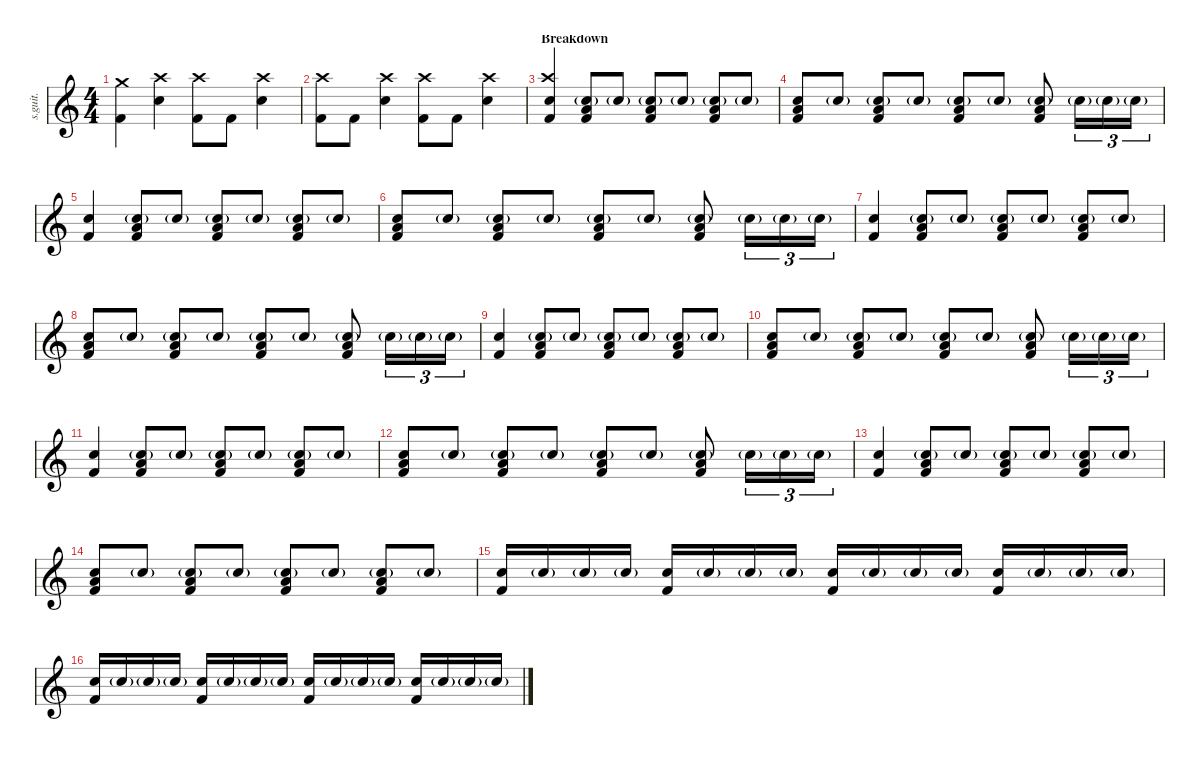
\defaultSystemsLayout 4
\hideDynamics
\bracketExtendMode nobrackets
\track ("Travis" "s.guit.") {instrument percussion}
\staff {score}
\articulation defaults
\ts (4 4)
\tempo (149 hide)
\clef g2
\ks c
("Crash medium (hit)" "Kick (hit) 2").4{lyrics (0 "") lyrics (1 "") lyrics (2 "") lyrics (3 "") lyrics (4 "") dy f} ("Crash high (hit)" "Snare (hit) 2").4{lyrics (0 "") lyrics (1 "") lyrics (2 "") lyrics (3 "") lyrics (4 "")} ("Crash high (hit)" "Kick (hit) 2").8{lyrics (0 "") lyrics (1 "") lyrics (2 "") lyrics (3 "") lyrics (4 "")} "Kick (hit) 2".8{lyrics (0 "") lyrics (1 "") lyrics (2 "") lyrics (3 "") lyrics (4 "")} ("Crash high (hit)" "Snare (hit) 2").4{lyrics (0 "") lyrics (1 "") lyrics (2 "") lyrics (3 "") lyrics (4 "")} |
("Crash high (hit)" "Kick (hit) 2").8{lyrics (0 "") lyrics (1 "") lyrics (2 "") lyrics (3 "") lyrics (4 "")} "Kick (hit) 2".8{lyrics (0 "") lyrics (1 "") lyrics (2 "") lyrics (3 "") lyrics (4 "")} ("Crash high (hit)" "Snare (hit) 2").4{lyrics (0 "") lyrics (1 "") lyrics (2 "") lyrics (3 "") lyrics (4 "")} ("Crash high (hit)" "Kick (hit) 2").8{lyrics (0 "") lyrics (1 "") lyrics (2 "") lyrics (3 "") lyrics (4 "")} "Kick (hit) 2".8{lyrics (0 "") lyrics (1 "") lyrics (2 "") lyrics (3 "") lyrics (4 "")} ("Crash high (hit)" "Snare (hit) 2").4{lyrics (0 "") lyrics (1 "") lyrics (2 "") lyrics (3 "") lyrics (4 "")} |
\section ("" "Breakdown")
("Crash high (hit)" "Snare (hit) 2" "Kick (hit) 2").4{lyrics (0 "") lyrics (1 "") lyrics (2 "") lyrics (3 "") lyrics (4 "")} ("Snare (hit) 2"{g} "Low Tom (hit)" "Kick (hit) 2").8{lyrics (0 "") lyrics (1 "") lyrics (2 "") lyrics (3 "") lyrics (4 "")} "Snare (hit) 2"{g}.8{lyrics (0 "") lyrics (1 "") lyrics (2 "") lyrics (3 "") lyrics (4 "") dy ppp} ("Snare (hit) 2"{g} "Low Tom (hit)" "Kick (hit) 2").8{lyrics (0 "") lyrics (1 "") lyrics (2 "") lyrics (3 "") lyrics (4 "") dy f} "Snare (hit) 2"{g}.8{lyrics (0 "") lyrics (1 "") lyrics (2 "") lyrics (3 "") lyrics (4 "") dy ppp} ("Snare (hit) 2"{g} "Low Tom (hit)" "Kick (hit) 2").8{lyrics (0 "") lyrics (1 "") lyrics (2 "") lyrics (3 "") lyrics (4 "") dy f} "Snare (hit) 2"{g}.8{lyrics (0 "") lyrics (1 "") lyrics (2 "") lyrics (3 "") lyrics (4 "") dy ppp} |
("Snare (hit) 2" "Low Tom (hit)" "Kick (hit) 2").8{lyrics (0 "") lyrics (1 "") lyrics (2 "") lyrics (3 "") lyrics (4 "") dy f} "Snare (hit) 2"{g}.8{lyrics (0 "") lyrics (1 "") lyrics (2 "") lyrics (3 "") lyrics (4 "") dy ppp} ("Snare (hit) 2"{g} "Low Tom (hit)" "Kick (hit) 2").8{lyrics (0 "") lyrics (1 "") lyrics (2 "") lyrics (3 "") lyrics (4 "") dy f} "Snare (hit) 2"{g}.8{lyrics (0 "") lyrics (1 "") lyrics (2 "") lyrics (3 "") lyrics (4 "") dy ppp} ("Snare (hit) 2"{g} "Low Tom (hit)" "Kick (hit) 2").8{lyrics (0 "") lyrics (1 "") lyrics (2 "") lyrics (3 "") lyrics (4 "") dy f} "Snare (hit) 2"{g}.8{lyrics (0 "") lyrics (1 "") lyrics (2 "") lyrics (3 "") lyrics (4 "") dy ppp} ("Snare (hit) 2"{g} "Low Tom (hit)" "Kick (hit) 2").8{lyrics (0 "") lyrics (1 "") lyrics (2 "") lyrics (3 "") lyrics (4 "") dy f} "Snare (hit) 2"{g}.16{tu (3 2) lyrics (0 "") lyrics (1 "") lyrics (2 "") lyrics (3 "") lyrics (4 "") dy ppp} "Snare (hit) 2"{g}.16{tu (3 2) lyrics (0 "") lyrics (1 "") lyrics (2 "") lyrics (3 "") lyrics (4 "")} "Snare (hit) 2"{g}.16{tu (3 2) lyrics (0 "") lyrics (1 "") lyrics (2 "") lyrics (3 "") lyrics (4 "")} |
("Snare (hit) 2" "Kick (hit) 2").4{lyrics (0 "") lyrics (1 "") lyrics (2 "") lyrics (3 "") lyrics (4 "") dy f} ("Snare (hit) 2"{g} "Low Tom (hit)" "Kick (hit) 2").8{lyrics (0 "") lyrics (1 "") lyrics (2 "") lyrics (3 "") lyrics (4 "")} "Snare (hit) 2"{g}.8{lyrics (0 "") lyrics (1 "") lyrics (2 "") lyrics (3 "") lyrics (4 "") dy ppp} ("Snare (hit) 2"{g} "Low Tom (hit)" "Kick (hit) 2").8{lyrics (0 "") lyrics (1 "") lyrics (2 "") lyrics (3 "") lyrics (4 "") dy f} "Snare (hit) 2"{g}.8{lyrics (0 "") lyrics (1 "") lyrics (2 "") lyrics (3 "") lyrics (4 "") dy ppp} ("Snare (hit) 2"{g} "Low Tom (hit)" "Kick (hit) 2").8{lyrics (0 "") lyrics (1 "") lyrics (2 "") lyrics (3 "") lyrics (4 "") dy f} "Snare (hit) 2"{g}.8{lyrics (0 "") lyrics (1 "") lyrics (2 "") lyrics (3 "") lyrics (4 "") dy ppp} |
("Snare (hit) 2" "Low Tom (hit)" "Kick (hit) 2").8{lyrics (0 "") lyrics (1 "") lyrics (2 "") lyrics (3 "") lyrics (4 "") dy f} "Snare (hit) 2"{g}.8{lyrics (0 "") lyrics (1 "") lyrics (2 "") lyrics (3 "") lyrics (4 "") dy ppp} ("Snare (hit) 2"{g} "Low Tom (hit)" "Kick (hit) 2").8{lyrics (0 "") lyrics (1 "") lyrics (2 "") lyrics (3 "") lyrics (4 "") dy f} "Snare (hit) 2"{g}.8{lyrics (0 "") lyrics (1 "") lyrics (2 "") lyrics (3 "") lyrics (4 "") dy ppp} ("Snare (hit) 2"{g} "Low Tom (hit)" "Kick (hit) 2").8{lyrics (0 "") lyrics (1 "") lyrics (2 "") lyrics (3 "") lyrics (4 "") dy f} "Snare (hit) 2"{g}.8{lyrics (0 "") lyrics (1 "") lyrics (2 "") lyrics (3 "") lyrics (4 "") dy ppp} ("Snare (hit) 2"{g} "Low Tom (hit)" "Kick (hit) 2").8{lyrics (0 "") lyrics (1 "") lyrics (2 "") lyrics (3 "") lyrics (4 "") dy f} "Snare (hit) 2"{g}.16{tu (3 2) lyrics (0 "") lyrics (1 "") lyrics (2 "") lyrics (3 "") lyrics (4 "") dy ppp} "Snare (hit) 2"{g}.16{tu (3 2) lyrics (0 "") lyrics (1 "") lyrics (2 "") lyrics (3 "") lyrics (4 "")} "Snare (hit) 2"{g}.16{tu (3 2) lyrics (0 "") lyrics (1 "") lyrics (2 "") lyrics (3 "") lyrics (4 "")} |
("Snare (hit) 2" "Kick (hit) 2").4{lyrics (0 "") lyrics (1 "") lyrics (2 "") lyrics (3 "") lyrics (4 "") dy f} ("Snare (hit) 2"{g} "Low Tom (hit)" "Kick (hit) 2").8{lyrics (0 "") lyrics (1 "") lyrics (2 "") lyrics (3 "") lyrics (4 "")} "Snare (hit) 2"{g}.8{lyrics (0 "") lyrics (1 "") lyrics (2 "") lyrics (3 "") lyrics (4 "") dy ppp} ("Snare (hit) 2"{g} "Low Tom (hit)" "Kick (hit) 2").8{lyrics (0 "") lyrics (1 "") lyrics (2 "") lyrics (3 "") lyrics (4 "") dy f} "Snare (hit) 2"{g}.8{lyrics (0 "") lyrics (1 "") lyrics (2 "") lyrics (3 "") lyrics (4 "") dy ppp} ("Snare (hit) 2"{g} "Low Tom (hit)" "Kick (hit) 2").8{lyrics (0 "") lyrics (1 "") lyrics (2 "") lyrics (3 "") lyrics (4 "") dy f} "Snare (hit) 2"{g}.8{lyrics (0 "") lyrics (1 "") lyrics (2 "") lyrics (3 "") lyrics (4 "") dy ppp} |
("Snare (hit) 2" "Low Tom (hit)" "Kick (hit) 2").8{lyrics (0 "") lyrics (1 "") lyrics (2 "") lyrics (3 "") lyrics (4 "") dy f} "Snare (hit) 2"{g}.8{lyrics (0 "") lyrics (1 "") lyrics (2 "") lyrics (3 "") lyrics (4 "") dy ppp} ("Snare (hit) 2"{g} "Low Tom (hit)" "Kick (hit) 2").8{lyrics (0 "") lyrics (1 "") lyrics (2 "") lyrics (3 "") lyrics (4 "") dy f} "Snare (hit) 2"{g}.8{lyrics (0 "") lyrics (1 "") lyrics (2 "") lyrics (3 "") lyrics (4 "") dy ppp} ("Snare (hit) 2"{g} "Low Tom (hit)" "Kick (hit) 2").8{lyrics (0 "") lyrics (1 "") lyrics (2 "") lyrics (3 "") lyrics (4 "") dy f} "Snare (hit) 2"{g}.8{lyrics (0 "") lyrics (1 "") lyrics (2 "") lyrics (3 "") lyrics (4 "") dy ppp} ("Snare (hit) 2"{g} "Low Tom (hit)" "Kick (hit) 2").8{lyrics (0 "") lyrics (1 "") lyrics (2 "") lyrics (3 "") lyrics (4 "") dy f} "Snare (hit) 2"{g}.16{tu (3 2) lyrics (0 "") lyrics (1 "") lyrics (2 "") lyrics (3 "") lyrics (4 "") dy ppp} "Snare (hit) 2"{g}.16{tu (3 2) lyrics (0 "") lyrics (1 "") lyrics (2 "") lyrics (3 "") lyrics (4 "")} "Snare (hit) 2"{g}.16{tu (3 2) lyrics (0 "") lyrics (1 "") lyrics (2 "") lyrics (3 "") lyrics (4 "")} |
("Snare (hit) 2" "Kick (hit) 2").4{lyrics (0 "") lyrics (1 "") lyrics (2 "") lyrics (3 "") lyrics (4 "") dy f} ("Snare (hit) 2"{g} "Low Tom (hit)" "Kick (hit) 2").8{lyrics (0 "") lyrics (1 "") lyrics (2 "") lyrics (3 "") lyrics (4 "")} "Snare (hit) 2"{g}.8{lyrics (0 "") lyrics (1 "") lyrics (2 "") lyrics (3 "") lyrics (4 "") dy ppp} ("Snare (hit) 2"{g} "Low Tom (hit)" "Kick (hit) 2").8{lyrics (0 "") lyrics (1 "") lyrics (2 "") lyrics (3 "") lyrics (4 "") dy f} "Snare (hit) 2"{g}.8{lyrics (0 "") lyrics (1 "") lyrics (2 "") lyrics (3 "") lyrics (4 "") dy ppp} ("Snare (hit) 2"{g} "Low Tom (hit)" "Kick (hit) 2").8{lyrics (0 "") lyrics (1 "") lyrics (2 "") lyrics (3 "") lyrics (4 "") dy f} "Snare (hit) 2"{g}.8{lyrics (0 "") lyrics (1 "") lyrics (2 "") lyrics (3 "") lyrics (4 "") dy ppp} |
("Snare (hit) 2" "Low Tom (hit)" "Kick (hit) 2").8{lyrics (0 "") lyrics (1 "") lyrics (2 "") lyrics (3 "") lyrics (4 "") dy f} "Snare (hit) 2"{g}.8{lyrics (0 "") lyrics (1 "") lyrics (2 "") lyrics (3 "") lyrics (4 "") dy ppp} ("Snare (hit) 2"{g} "Low Tom (hit)" "Kick (hit) 2").8{lyrics (0 "") lyrics (1 "") lyrics (2 "") lyrics (3 "") lyrics (4 "") dy f} "Snare (hit) 2"{g}.8{lyrics (0 "") lyrics (1 "") lyrics (2 "") lyrics (3 "") lyrics (4 "") dy ppp} ("Snare (hit) 2"{g} "Low Tom (hit)" "Kick (hit) 2").8{lyrics (0 "") lyrics (1 "") lyrics (2 "") lyrics (3 "") lyrics (4 "") dy f} "Snare (hit) 2"{g}.8{lyrics (0 "") lyrics (1 "") lyrics (2 "") lyrics (3 "") lyrics (4 "") dy ppp} ("Snare (hit) 2"{g} "Low Tom (hit)" "Kick (hit) 2").8{lyrics (0 "") lyrics (1 "") lyrics (2 "") lyrics (3 "") lyrics (4 "") dy f} "Snare (hit) 2"{g}.16{tu (3 2) lyrics (0 "") lyrics (1 "") lyrics (2 "") lyrics (3 "") lyrics (4 "") dy ppp} "Snare (hit) 2"{g}.16{tu (3 2) lyrics (0 "") lyrics (1 "") lyrics (2 "") lyrics (3 "") lyrics (4 "")} "Snare (hit) 2"{g}.16{tu (3 2) lyrics (0 "") lyrics (1 "") lyrics (2 "") lyrics (3 "") lyrics (4 "")} |
("Snare (hit) 2" "Kick (hit) 2").4{lyrics (0 "") lyrics (1 "") lyrics (2 "") lyrics (3 "") lyrics (4 "") dy f} ("Snare (hit) 2"{g} "Low Tom (hit)" "Kick (hit) 2").8{lyrics (0 "") lyrics (1 "") lyrics (2 "") lyrics (3 "") lyrics (4 "")} "Snare (hit) 2"{g}.8{lyrics (0 "") lyrics (1 "") lyrics (2 "") lyrics (3 "") lyrics (4 "") dy ppp} ("Snare (hit) 2"{g} "Low Tom (hit)" "Kick (hit) 2").8{lyrics (0 "") lyrics (1 "") lyrics (2 "") lyrics (3 "") lyrics (4 "") dy f} "Snare (hit) 2"{g}.8{lyrics (0 "") lyrics (1 "") lyrics (2 "") lyrics (3 "") lyrics (4 "") dy ppp} ("Snare (hit) 2"{g} "Low Tom (hit)" "Kick (hit) 2").8{lyrics (0 "") lyrics (1 "") lyrics (2 "") lyrics (3 "") lyrics (4 "") dy f} "Snare (hit) 2"{g}.8{lyrics (0 "") lyrics (1 "") lyrics (2 "") lyrics (3 "") lyrics (4 "") dy ppp} |
("Snare (hit) 2" "Low Tom (hit)" "Kick (hit) 2").8{lyrics (0 "") lyrics (1 "") lyrics (2 "") lyrics (3 "") lyrics (4 "") dy f} "Snare (hit) 2"{g}.8{lyrics (0 "") lyrics (1 "") lyrics (2 "") lyrics (3 "") lyrics (4 "") dy ppp} ("Snare (hit) 2"{g} "Low Tom (hit)" "Kick (hit) 2").8{lyrics (0 "") lyrics (1 "") lyrics (2 "") lyrics (3 "") lyrics (4 "") dy f} "Snare (hit) 2"{g}.8{lyrics (0 "") lyrics (1 "") lyrics (2 "") lyrics (3 "") lyrics (4 "") dy ppp} ("Snare (hit) 2"{g} "Low Tom (hit)" "Kick (hit) 2").8{lyrics (0 "") lyrics (1 "") lyrics (2 "") lyrics (3 "") lyrics (4 "") dy f} "Snare (hit) 2"{g}.8{lyrics (0 "") lyrics (1 "") lyrics (2 "") lyrics (3 "") lyrics (4 "") dy ppp} ("Snare (hit) 2"{g} "Low Tom (hit)" "Kick (hit) 2").8{lyrics (0 "") lyrics (1 "") lyrics (2 "") lyrics (3 "") lyrics (4 "") dy f} "Snare (hit) 2"{g}.16{tu (3 2) lyrics (0 "") lyrics (1 "") lyrics (2 "") lyrics (3 "") lyrics (4 "") dy ppp} "Snare (hit) 2"{g}.16{tu (3 2) lyrics (0 "") lyrics (1 "") lyrics (2 "") lyrics (3 "") lyrics (4 "")} "Snare (hit) 2"{g}.16{tu (3 2) lyrics (0 "") lyrics (1 "") lyrics (2 "") lyrics (3 "") lyrics (4 "")} |
("Snare (hit) 2" "Kick (hit) 2").4{lyrics (0 "") lyrics (1 "") lyrics (2 "") lyrics (3 "") lyrics (4 "") dy f} ("Snare (hit) 2"{g} "Low Tom (hit)" "Kick (hit) 2").8{lyrics (0 "") lyrics (1 "") lyrics (2 "") lyrics (3 "") lyrics (4 "")} "Snare (hit) 2"{g}.8{lyrics (0 "") lyrics (1 "") lyrics (2 "") lyrics (3 "") lyrics (4 "") dy ppp} ("Snare (hit) 2"{g} "Low Tom (hit)" "Kick (hit) 2").8{lyrics (0 "") lyrics (1 "") lyrics (2 "") lyrics (3 "") lyrics (4 "") dy f} "Snare (hit) 2"{g}.8{lyrics (0 "") lyrics (1 "") lyrics (2 "") lyrics (3 "") lyrics (4 "") dy ppp} ("Snare (hit) 2"{g} "Low Tom (hit)" "Kick (hit) 2").8{lyrics (0 "") lyrics (1 "") lyrics (2 "") lyrics (3 "") lyrics (4 "") dy f} "Snare (hit) 2"{g}.8{lyrics (0 "") lyrics (1 "") lyrics (2 "") lyrics (3 "") lyrics (4 "") dy ppp} |
("Snare (hit) 2" "Low Tom (hit)" "Kick (hit) 2").8{lyrics (0 "") lyrics (1 "") lyrics (2 "") lyrics (3 "") lyrics (4 "") dy f} "Snare (hit) 2"{g}.8{lyrics (0 "") lyrics (1 "") lyrics (2 "") lyrics (3 "") lyrics (4 "") dy ppp} ("Snare (hit) 2"{g} "Low Tom (hit)" "Kick (hit) 2").8{lyrics (0 "") lyrics (1 "") lyrics (2 "") lyrics (3 "") lyrics (4 "") dy f} "Snare (hit) 2"{g}.8{lyrics (0 "") lyrics (1 "") lyrics (2 "") lyrics (3 "") lyrics (4 "") dy ppp} ("Snare (hit) 2"{g} "Low Tom (hit)" "Kick (hit) 2").8{lyrics (0 "") lyrics (1 "") lyrics (2 "") lyrics (3 "") lyrics (4 "") dy f} "Snare (hit) 2"{g}.8{lyrics (0 "") lyrics (1 "") lyrics (2 "") lyrics (3 "") lyrics (4 "") dy ppp} ("Snare (hit) 2"{g} "Low Tom (hit)" "Kick (hit) 2").8{lyrics (0 "") lyrics (1 "") lyrics (2 "") lyrics (3 "") lyrics (4 "") dy f} "Snare (hit) 2"{g}.8{lyrics (0 "") lyrics (1 "") lyrics (2 "") lyrics (3 "") lyrics (4 "") dy ppp} |
("Snare (hit) 2" "Kick (hit) 2").16{lyrics (0 "") lyrics (1 "") lyrics (2 "") lyrics (3 "") lyrics (4 "") dy f} "Snare (hit) 2"{g}.16{lyrics (0 "") lyrics (1 "") lyrics (2 "") lyrics (3 "") lyrics (4 "") dy ppp} "Snare (hit) 2"{g}.16{lyrics (0 "") lyrics (1 "") lyrics (2 "") lyrics (3 "") lyrics (4 "")} "Snare (hit) 2"{g}.16{lyrics (0 "") lyrics (1 "") lyrics (2 "") lyrics (3 "") lyrics (4 "")} ("Snare (hit) 2" "Kick (hit) 2").16{lyrics (0 "") lyrics (1 "") lyrics (2 "") lyrics (3 "") lyrics (4 "") dy f} "Snare (hit) 2"{g}.16{lyrics (0 "") lyrics (1 "") lyrics (2 "") lyrics (3 "") lyrics (4 "") dy ppp} "Snare (hit) 2"{g}.16{lyrics (0 "") lyrics (1 "") lyrics (2 "") lyrics (3 "") lyrics (4 "")} "Snare (hit) 2"{g}.16{lyrics (0 "") lyrics (1 "") lyrics (2 "") lyrics (3 "") lyrics (4 "")} ("Snare (hit) 2" "Kick (hit) 2").16{lyrics (0 "") lyrics (1 "") lyrics (2 "") lyrics (3 "") lyrics (4 "") dy f} "Snare (hit) 2"{g}.16{lyrics (0 "") lyrics (1 "") lyrics (2 "") lyrics (3 "") lyrics (4 "") dy ppp} "Snare (hit) 2"{g}.16{lyrics (0 "") lyrics (1 "") lyrics (2 "") lyrics (3 "") lyrics (4 "")} "Snare (hit) 2"{g}.16{lyrics (0 "") lyrics (1 "") lyrics (2 "") lyrics (3 "") lyrics (4 "")} ("Snare (hit) 2" "Kick (hit) 2").16{lyrics (0 "") lyrics (1 "") lyrics (2 "") lyrics (3 "") lyrics (4 "") dy f} "Snare (hit) 2"{g}.16{lyrics (0 "") lyrics (1 "") lyrics (2 "") lyrics (3 "") lyrics (4 "") dy ppp} "Snare (hit) 2"{g}.16{lyrics (0 "") lyrics (1 "") lyrics (2 "") lyrics (3 "") lyrics (4 "")} "Snare (hit) 2"{g}.16{lyrics (0 "") lyrics (1 "") lyrics (2 "") lyrics (3 "") lyrics (4 "")} |
("Snare (hit) 2" "Kick (hit) 2").16{lyrics (0 "") lyrics (1 "") lyrics (2 "") lyrics (3 "") lyrics (4 "") dy f} "Snare (hit) 2"{g}.16{lyrics (0 "") lyrics (1 "") lyrics (2 "") lyrics (3 "") lyrics (4 "") dy ppp} "Snare (hit) 2"{g}.16{lyrics (0 "") lyrics (1 "") lyrics (2 "") lyrics (3 "") lyrics (4 "")} "Snare (hit) 2"{g}.16{lyrics (0 "") lyrics (1 "") lyrics (2 "") lyrics (3 "") lyrics (4 "")} ("Snare (hit) 2" "Kick (hit) 2").16{lyrics (0 "") lyrics (1 "") lyrics (2 "") lyrics (3 "") lyrics (4 "") dy f} "Snare (hit) 2"{g}.16{lyrics (0 "") lyrics (1 "") lyrics (2 "") lyrics (3 "") lyrics (4 "") dy ppp} "Snare (hit) 2"{g}.16{lyrics (0 "") lyrics (1 "") lyrics (2 "") lyrics (3 "") lyrics (4 "")} "Snare (hit) 2"{g}.16{lyrics (0 "") lyrics (1 "") lyrics (2 "") lyrics (3 "") lyrics (4 "")} ("Snare (hit) 2" "Kick (hit) 2").16{lyrics (0 "") lyrics (1 "") lyrics (2 "") lyrics (3 "") lyrics (4 "") dy f} "Snare (hit) 2"{g}.16{lyrics (0 "") lyrics (1 "") lyrics (2 "") lyrics (3 "") lyrics (4 "") dy ppp} "Snare (hit) 2"{g}.16{lyrics (0 "") lyrics (1 "") lyrics (2 "") lyrics (3 "") lyrics (4 "")} "Snare (hit) 2"{g}.16{lyrics (0 "") lyrics (1 "") lyrics (2 "") lyrics (3 "") lyrics (4 "")} ("Snare (hit) 2" "Kick (hit) 2").16{lyrics (0 "") lyrics (1 "") lyrics (2 "") lyrics (3 "") lyrics (4 "") dy f} "Snare (hit) 2"{g}.16{lyrics (0 "") lyrics (1 "") lyrics (2 "") lyrics (3 "") lyrics (4 "") dy ppp} "Snare (hit) 2"{g}.16{lyrics (0 "") lyrics (1 "") lyrics (2 "") lyrics (3 "") lyrics (4 "")} "Snare (hit) 2"{g}.16{lyrics (0 "") lyrics (1 "") lyrics (2 "") lyrics (3 "") lyrics (4 "")}
